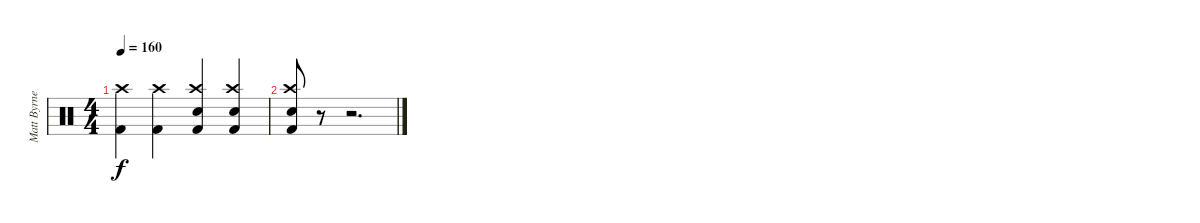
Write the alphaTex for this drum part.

\track ("Matt Byrne" "Matt Byrne") {instrument percussion}
\staff {score}
\articulation defaults
\ts (4 4)
\tempo 160
\clef neutral
\ks c
("Kick (hit) 2" "Crash high (hit)").4{dy f} ("Kick (hit) 2" "Crash high (hit)").4 ("Kick (hit) 2" "Crash high (hit)" "Snare (hit) 2").4 ("Kick (hit) 2" "Crash high (hit)" "Snare (hit) 2").4 |
("Kick (hit) 2" "Crash high (hit)" "Snare (hit) 2").8 r.8 r.2{d}
